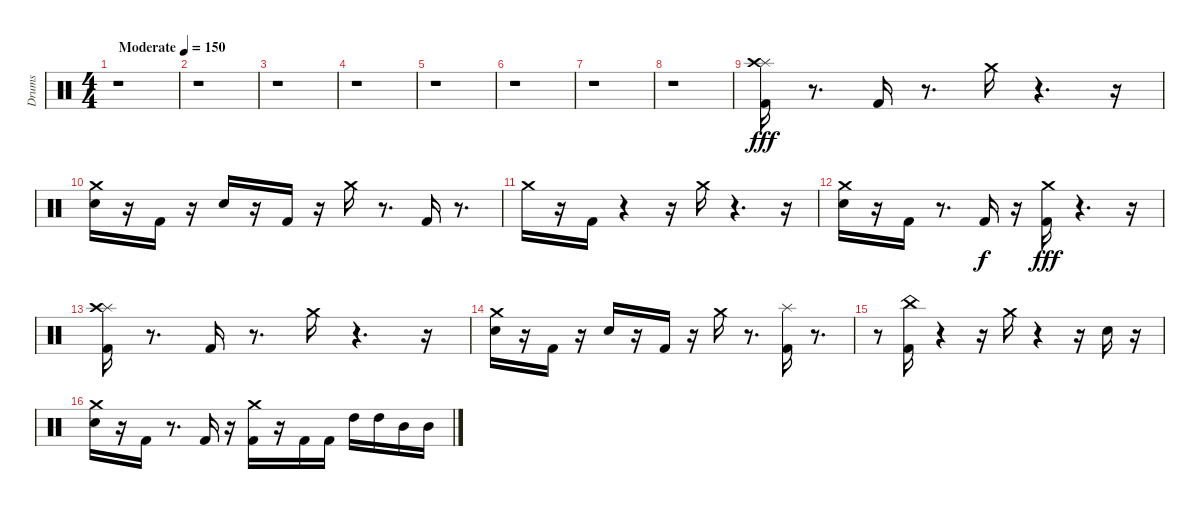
\track ("Drums" "Drums") {instrument percussion}
\staff {score}
\articulation defaults
\ts (4 4)
\tempo (150 "Moderate")
\clef neutral
\ks c
r.1{dy fff} |
r.1 |
r.1 |
r.1 |
r.1 |
r.1 |
r.1 |
r.1 |
("Splash (hit)" "Kick (hit) 2" "Crash high (hit)").16 r.8{d} "Kick (hit) 2".16 r.8{d} "Crash medium (hit)".16 r.4{d} r.16 |
("Snare (hit) 2" "Crash medium (hit)").16 r.16 "Kick (hit) 2".16 r.16 "Snare (hit) 2".16 r.16 "Kick (hit) 2".16 r.16 "Crash medium (hit)".16 r.8{d} "Kick (hit) 2".16 r.8{d} |
"Crash medium (hit)".16 r.16 "Kick (hit) 2".16 r.4 r.16 "Crash medium (hit)".16 r.4{d} r.16 |
("Crash medium (hit)" "Snare (hit) 2").16 r.16 "Kick (hit) 2".16 r.8{d} "Kick (hit) 2".16{dy f} r.16 ("Kick (hit) 2" "Crash medium (hit)").16{dy fff} r.4{d} r.16 |
("Splash (hit)" "Kick (hit) 2" "Crash high (hit)").16 r.8{d} "Kick (hit) 2".16 r.8{d} "Crash medium (hit)".16 r.4{d} r.16 |
("Snare (hit) 2" "Crash medium (hit)").16 r.16 "Kick (hit) 2".16 r.16 "Snare (hit) 2".16 r.16 "Kick (hit) 2".16 r.16 "Crash medium (hit)".16 r.8{d} ("Kick (hit) 2" "Splash (hit)").16 r.8{d} |
r.8 ("Kick (hit) 2" "China (hit)").16 r.4 r.16 "Crash medium (hit)".16 r.4 r.16 "Snare (hit) 2".16 r.16 |
("Crash medium (hit)" "Snare (hit) 2").16 r.16 "Kick (hit) 2".16 r.8{d} "Kick (hit) 2".16 r.16 ("Kick (hit) 2" "Crash medium (hit)").16 r.16 "Kick (hit) 2".16 "Kick (hit) 2".16 "High Tom (hit)".16 "High Tom (hit)".16 "Mid Tom (hit)".16 "Mid Tom (hit)".16
